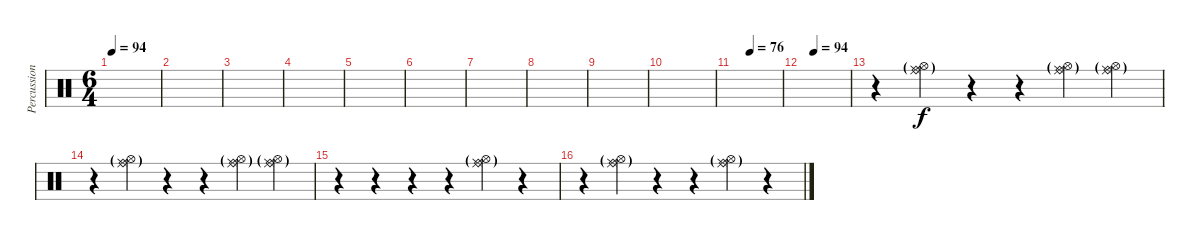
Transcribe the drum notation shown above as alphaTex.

\track ("Percussion" "Percussion") {instrument percussion}
\staff {score}
\articulation defaults
\ts (6 4)
\tempo 94
\clef neutral
\ks c
|
|
|
|
|
|
|
|
|
|
\tempo (76 0.3333333333333333)
|
\tempo (94 0.25)
|
r.4 ("Ride (bell)"{g} "Ride (middle)"{g} "Hi-Hat (open)"{g}).4 r.4 r.4 ("Ride (bell)"{g} "Ride (middle)"{g} "Hi-Hat (open)"{g}).4 ("Ride (bell)"{g} "Ride (middle)"{g} "Hi-Hat (open)"{g}).4 |
r.4 ("Ride (bell)"{g} "Ride (middle)"{g} "Hi-Hat (open)"{g}).4 r.4 r.4 ("Ride (bell)"{g} "Ride (middle)"{g} "Hi-Hat (open)"{g}).4 ("Ride (bell)"{g} "Ride (middle)"{g} "Hi-Hat (open)"{g}).4 |
r.4 r.4 r.4 r.4 ("Ride (bell)"{g} "Ride (middle)"{g} "Hi-Hat (open)"{g}).4 r.4 |
r.4 ("Ride (middle)"{g} "Ride (bell)"{g} "Hi-Hat (open)"{g}).4 r.4 r.4 ("Ride (bell)"{g} "Ride (middle)"{g} "Hi-Hat (open)"{g}).4 r.4
